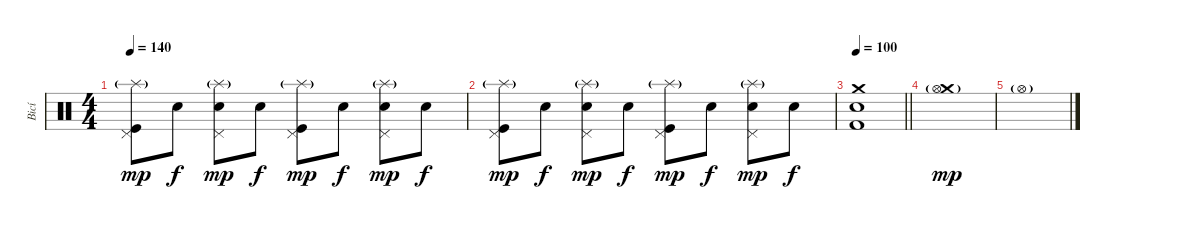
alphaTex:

\track ("Bicí" "Bicí") {instrument percussion}
\staff {score}
\articulation defaults
\ts (4 4)
\tempo 140
\clef neutral
\ks c
("Splash (hit)"{g} "Pedal Hi-Hat (hit)" "Kick (hit)").8{dy mp} "Snare (hit)".8{dy f} ("Splash (hit)"{g} "Pedal Hi-Hat (hit)" "Electric Snare (hit)").8{dy mp} "Snare (hit)".8{dy f} ("Splash (hit)"{g} "Pedal Hi-Hat (hit)" "Kick (hit)").8{dy mp} "Snare (hit)".8{dy f} ("Splash (hit)"{g} "Pedal Hi-Hat (hit)" "Electric Snare (hit)").8{dy mp} "Snare (hit)".8{dy f} |
("Splash (hit)"{g} "Pedal Hi-Hat (hit)" "Kick (hit)").8{dy mp} "Snare (hit)".8{dy f} ("Splash (hit)"{g} "Pedal Hi-Hat (hit)" "Electric Snare (hit)").8{dy mp} "Snare (hit)".8{dy f} ("Splash (hit)"{g} "Pedal Hi-Hat (hit)" "Kick (hit)").8{dy mp} "Snare (hit)".8{dy f} ("Splash (hit)"{g} "Pedal Hi-Hat (hit)" "Electric Snare (hit)").8{dy mp} "Snare (hit)".8{dy f} |
\tempo 100
\barLineRight lightlight
("Crash medium (hit)" "Kick (hit) 2" "Electric Snare (hit)").1 |
("Crash medium (hit)"{g} "Hi-Hat (open)"{g}).1{dy mp} |
"Hi-Hat (open)"{g}.1
